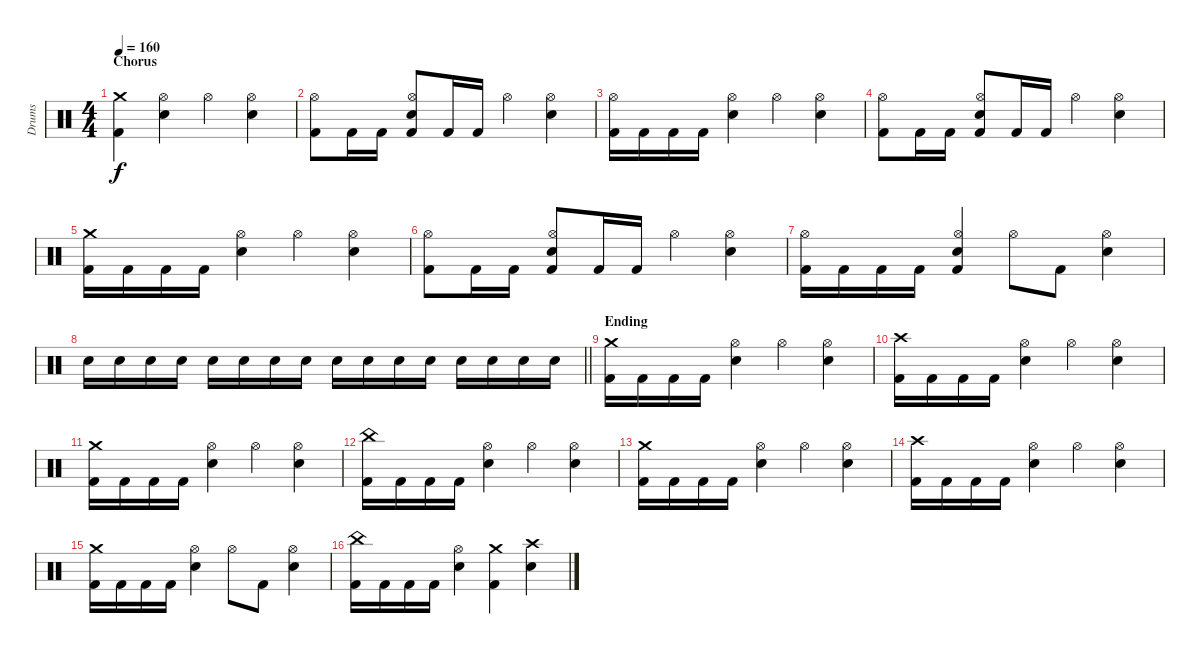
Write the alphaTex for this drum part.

\track ("Drums" "Drums") {instrument percussion}
\staff {score}
\articulation defaults
\ts (4 4)
\section ("" "Chorus")
\tempo 160
\clef neutral
\ks aminor
("Crash medium (hit)" "Kick (hit) 2").4{dy f} ("Hi-Hat (open)" "Electric Snare (hit)").4 "Hi-Hat (open)".4 ("Hi-Hat (open)" "Electric Snare (hit)").4 |
("Hi-Hat (open)" "Kick (hit) 2").8 "Kick (hit) 2".16 "Kick (hit) 2".16 ("Hi-Hat (open)" "Electric Snare (hit)" "Kick (hit) 2").8 "Kick (hit) 2".16 "Kick (hit) 2".16 "Hi-Hat (open)".4 ("Hi-Hat (open)" "Electric Snare (hit)").4 |
("Hi-Hat (open)" "Kick (hit) 2").16 "Kick (hit) 2".16 "Kick (hit) 2".16 "Kick (hit) 2".16 ("Hi-Hat (open)" "Electric Snare (hit)").4 "Hi-Hat (open)".4 ("Hi-Hat (open)" "Electric Snare (hit)").4 |
("Hi-Hat (open)" "Kick (hit) 2").8 "Kick (hit) 2".16 "Kick (hit) 2".16 ("Hi-Hat (open)" "Electric Snare (hit)" "Kick (hit) 2").8 "Kick (hit) 2".16 "Kick (hit) 2".16 "Hi-Hat (open)".4 ("Hi-Hat (open)" "Electric Snare (hit)").4 |
("Crash medium (hit)" "Kick (hit) 2").16 "Kick (hit) 2".16 "Kick (hit) 2".16 "Kick (hit) 2".16 ("Hi-Hat (open)" "Electric Snare (hit)").4 "Hi-Hat (open)".4 ("Hi-Hat (open)" "Electric Snare (hit)").4 |
("Hi-Hat (open)" "Kick (hit) 2").8 "Kick (hit) 2".16 "Kick (hit) 2".16 ("Hi-Hat (open)" "Electric Snare (hit)" "Kick (hit) 2").8 "Kick (hit) 2".16 "Kick (hit) 2".16 "Hi-Hat (open)".4 ("Hi-Hat (open)" "Electric Snare (hit)").4 |
("Hi-Hat (open)" "Kick (hit) 2").16 "Kick (hit) 2".16 "Kick (hit) 2".16 "Kick (hit) 2".16 ("Hi-Hat (open)" "Electric Snare (hit)" "Kick (hit) 2").4 "Hi-Hat (open)".8 "Kick (hit) 2".8 ("Hi-Hat (open)" "Electric Snare (hit)").4 |
\barLineRight lightlight "Electric Snare (hit)".16 "Snare (hit) 2".16 "Snare (hit) 2".16 "Snare (hit) 2".16 "Electric Snare (hit)".16 "Snare (hit) 2".16 "Snare (hit) 2".16 "Snare (hit) 2".16 "Electric Snare (hit)".16 "Snare (hit) 2".16 "Electric Snare (hit)".16 "Snare (hit) 2".16 "Electric Snare (hit)".16 "Snare (hit) 2".16 "Electric Snare (hit)".16 "Electric Snare (hit)".16
|
\section ("" "Ending")
("Crash medium (hit)" "Kick (hit) 2").16 "Kick (hit) 2".16 "Kick (hit) 2".16 "Kick (hit) 2".16 ("Hi-Hat (open)" "Electric Snare (hit)").4 "Hi-Hat (open)".4 ("Hi-Hat (open)" "Electric Snare (hit)").4 |
("Crash high (hit)" "Kick (hit) 2").16 "Kick (hit) 2".16 "Kick (hit) 2".16 "Kick (hit) 2".16 ("Hi-Hat (open)" "Electric Snare (hit)").4 "Hi-Hat (open)".4 ("Hi-Hat (open)" "Electric Snare (hit)").4 |
("Crash medium (hit)" "Kick (hit) 2").16 "Kick (hit) 2".16 "Kick (hit) 2".16 "Kick (hit) 2".16 ("Hi-Hat (open)" "Electric Snare (hit)").4 "Hi-Hat (open)".4 ("Hi-Hat (open)" "Electric Snare (hit)").4 |
("China (hit)" "Kick (hit) 2").16 "Kick (hit) 2".16 "Kick (hit) 2".16 "Kick (hit) 2".16 ("Hi-Hat (open)" "Electric Snare (hit)").4 "Hi-Hat (open)".4 ("Hi-Hat (open)" "Electric Snare (hit)").4 |
("Crash medium (hit)" "Kick (hit) 2").16 "Kick (hit) 2".16 "Kick (hit) 2".16 "Kick (hit) 2".16 ("Hi-Hat (open)" "Electric Snare (hit)").4 "Hi-Hat (open)".4 ("Hi-Hat (open)" "Electric Snare (hit)").4 |
("Crash high (hit)" "Kick (hit) 2").16 "Kick (hit) 2".16 "Kick (hit) 2".16 "Kick (hit) 2".16 ("Hi-Hat (open)" "Electric Snare (hit)").4 "Hi-Hat (open)".4 ("Hi-Hat (open)" "Electric Snare (hit)").4 |
("Crash medium (hit)" "Kick (hit) 2").16 "Kick (hit) 2".16 "Kick (hit) 2".16 "Kick (hit) 2".16 ("Hi-Hat (open)" "Electric Snare (hit)").4 "Hi-Hat (open)".8 "Kick (hit) 2".8 ("Hi-Hat (open)" "Electric Snare (hit)").4 |
("China (hit)" "Kick (hit) 2").16 "Kick (hit) 2".16 "Kick (hit) 2".16 "Kick (hit) 2".16 ("Hi-Hat (open)" "Electric Snare (hit)").4 ("Crash medium (hit)" "Kick (hit) 2").4 ("Crash high (hit)" "Electric Snare (hit)").4
